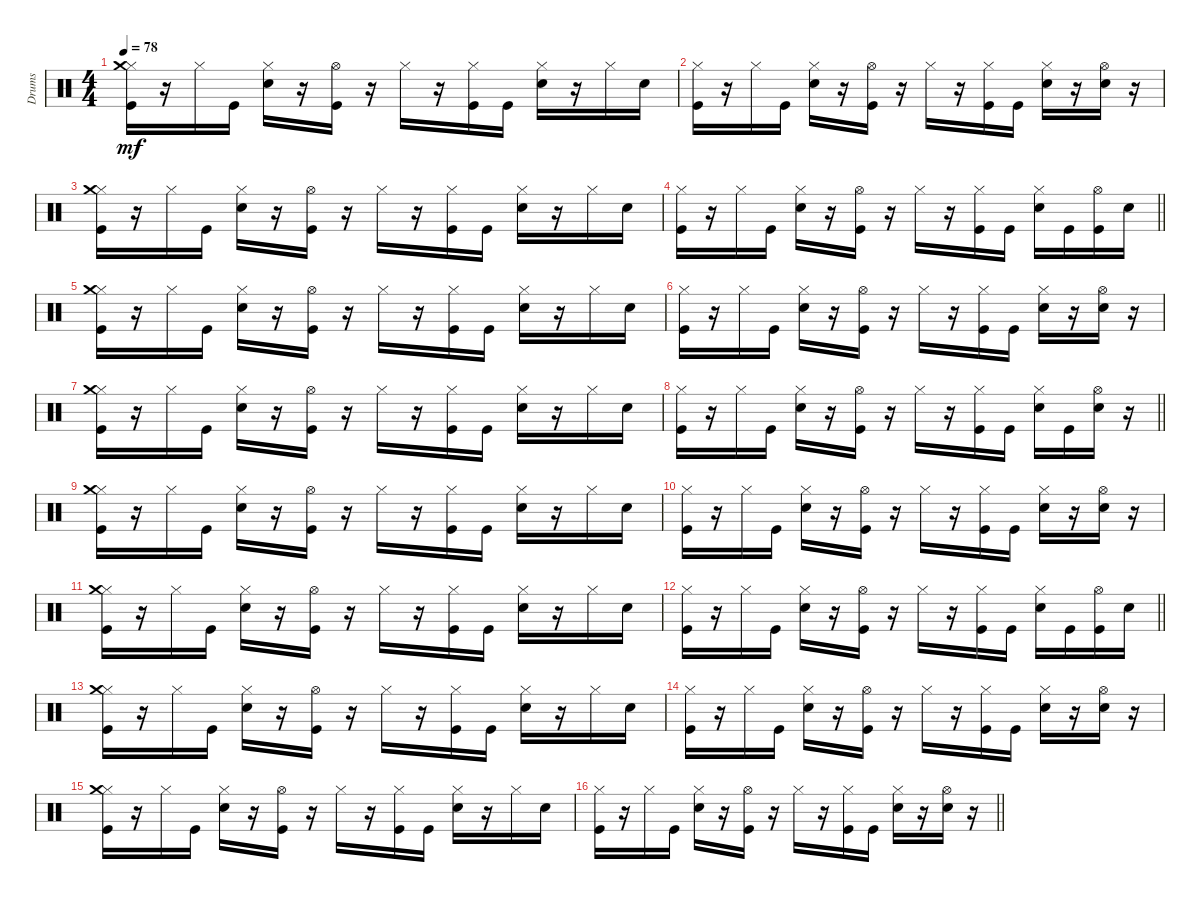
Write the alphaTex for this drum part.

\track ("Drums" "Drums") {instrument percussion}
\staff {score}
\articulation defaults
\ts (4 4)
\tempo 78
\clef neutral
\ks c
("Hi-Hat (closed)" "Crash medium (hit)" "Kick (hit)").16{dy mf} r.16 "Hi-Hat (closed)".16 "Kick (hit)".16 ("Hi-Hat (closed)" "Snare (hit) 2").16 r.16 ("Hi-Hat (open)" "Kick (hit)").16 r.16 "Hi-Hat (closed)".16 r.16 ("Hi-Hat (closed)" "Kick (hit)").16 "Kick (hit)".16 ("Hi-Hat (closed)" "Snare (hit) 2").16 r.16 "Hi-Hat (closed)".16 "Snare (hit) 2".16 |
("Hi-Hat (closed)" "Kick (hit)").16 r.16 "Hi-Hat (closed)".16 "Kick (hit)".16 ("Hi-Hat (closed)" "Snare (hit) 2").16 r.16 ("Hi-Hat (open)" "Kick (hit)").16 r.16 "Hi-Hat (closed)".16 r.16 ("Hi-Hat (closed)" "Kick (hit)").16 "Kick (hit)".16 ("Hi-Hat (closed)" "Snare (hit) 2").16 r.16 ("Hi-Hat (open)" "Snare (hit) 2").16 r.16 |
("Hi-Hat (closed)" "Crash medium (hit)" "Kick (hit)").16 r.16 "Hi-Hat (closed)".16 "Kick (hit)".16 ("Hi-Hat (closed)" "Snare (hit) 2").16 r.16 ("Hi-Hat (open)" "Kick (hit)").16 r.16 "Hi-Hat (closed)".16 r.16 ("Hi-Hat (closed)" "Kick (hit)").16 "Kick (hit)".16 ("Hi-Hat (closed)" "Snare (hit) 2").16 r.16 "Hi-Hat (closed)".16 "Snare (hit) 2".16 |
\barLineRight lightlight
("Hi-Hat (closed)" "Kick (hit)").16 r.16 "Hi-Hat (closed)".16 "Kick (hit)".16 ("Hi-Hat (closed)" "Snare (hit) 2").16 r.16 ("Hi-Hat (open)" "Kick (hit)").16 r.16 "Hi-Hat (closed)".16 r.16 ("Hi-Hat (closed)" "Kick (hit)").16 "Kick (hit)".16 ("Hi-Hat (closed)" "Snare (hit) 2").16 "Kick (hit)".16 ("Hi-Hat (open)" "Kick (hit)").16 "Snare (hit) 2".16 |
("Hi-Hat (closed)" "Crash medium (hit)" "Kick (hit)").16 r.16 "Hi-Hat (closed)".16 "Kick (hit)".16 ("Hi-Hat (closed)" "Snare (hit) 2").16 r.16 ("Hi-Hat (open)" "Kick (hit)").16 r.16 "Hi-Hat (closed)".16 r.16 ("Hi-Hat (closed)" "Kick (hit)").16 "Kick (hit)".16 ("Hi-Hat (closed)" "Snare (hit) 2").16 r.16 "Hi-Hat (closed)".16 "Snare (hit) 2".16 |
("Hi-Hat (closed)" "Kick (hit)").16 r.16 "Hi-Hat (closed)".16 "Kick (hit)".16 ("Hi-Hat (closed)" "Snare (hit) 2").16 r.16 ("Hi-Hat (open)" "Kick (hit)").16 r.16 "Hi-Hat (closed)".16 r.16 ("Hi-Hat (closed)" "Kick (hit)").16 "Kick (hit)".16 ("Hi-Hat (closed)" "Snare (hit) 2").16 r.16 ("Hi-Hat (open)" "Snare (hit) 2").16 r.16 |
("Hi-Hat (closed)" "Crash medium (hit)" "Kick (hit)").16 r.16 "Hi-Hat (closed)".16 "Kick (hit)".16 ("Hi-Hat (closed)" "Snare (hit) 2").16 r.16 ("Hi-Hat (open)" "Kick (hit)").16 r.16 "Hi-Hat (closed)".16 r.16 ("Hi-Hat (closed)" "Kick (hit)").16 "Kick (hit)".16 ("Hi-Hat (closed)" "Snare (hit) 2").16 r.16 "Hi-Hat (closed)".16 "Snare (hit) 2".16 |
\barLineRight lightlight
("Hi-Hat (closed)" "Kick (hit)").16 r.16 "Hi-Hat (closed)".16 "Kick (hit)".16 ("Hi-Hat (closed)" "Snare (hit) 2").16 r.16 ("Hi-Hat (open)" "Kick (hit)").16 r.16 "Hi-Hat (closed)".16 r.16 ("Hi-Hat (closed)" "Kick (hit)").16 "Kick (hit)".16 ("Hi-Hat (closed)" "Snare (hit) 2").16 "Kick (hit)".16 ("Hi-Hat (open)" "Snare (hit) 2").16 r.16 |
("Hi-Hat (closed)" "Crash medium (hit)" "Kick (hit)").16 r.16 "Hi-Hat (closed)".16 "Kick (hit)".16 ("Hi-Hat (closed)" "Snare (hit) 2").16 r.16 ("Hi-Hat (open)" "Kick (hit)").16 r.16 "Hi-Hat (closed)".16 r.16 ("Hi-Hat (closed)" "Kick (hit)").16 "Kick (hit)".16 ("Hi-Hat (closed)" "Snare (hit) 2").16 r.16 "Hi-Hat (closed)".16 "Snare (hit) 2".16 |
("Hi-Hat (closed)" "Kick (hit)").16 r.16 "Hi-Hat (closed)".16 "Kick (hit)".16 ("Hi-Hat (closed)" "Snare (hit) 2").16 r.16 ("Hi-Hat (open)" "Kick (hit)").16 r.16 "Hi-Hat (closed)".16 r.16 ("Hi-Hat (closed)" "Kick (hit)").16 "Kick (hit)".16 ("Hi-Hat (closed)" "Snare (hit) 2").16 r.16 ("Hi-Hat (open)" "Snare (hit) 2").16 r.16 |
("Hi-Hat (closed)" "Crash medium (hit)" "Kick (hit)").16 r.16 "Hi-Hat (closed)".16 "Kick (hit)".16 ("Hi-Hat (closed)" "Snare (hit) 2").16 r.16 ("Hi-Hat (open)" "Kick (hit)").16 r.16 "Hi-Hat (closed)".16 r.16 ("Hi-Hat (closed)" "Kick (hit)").16 "Kick (hit)".16 ("Hi-Hat (closed)" "Snare (hit) 2").16 r.16 "Hi-Hat (closed)".16 "Snare (hit) 2".16 |
\barLineRight lightlight
("Hi-Hat (closed)" "Kick (hit)").16 r.16 "Hi-Hat (closed)".16 "Kick (hit)".16 ("Hi-Hat (closed)" "Snare (hit) 2").16 r.16 ("Hi-Hat (open)" "Kick (hit)").16 r.16 "Hi-Hat (closed)".16 r.16 ("Hi-Hat (closed)" "Kick (hit)").16 "Kick (hit)".16 ("Hi-Hat (closed)" "Snare (hit) 2").16 "Kick (hit)".16 ("Hi-Hat (open)" "Kick (hit)").16 "Snare (hit) 2".16 |
("Hi-Hat (closed)" "Crash medium (hit)" "Kick (hit)").16 r.16 "Hi-Hat (closed)".16 "Kick (hit)".16 ("Hi-Hat (closed)" "Snare (hit) 2").16 r.16 ("Hi-Hat (open)" "Kick (hit)").16 r.16 "Hi-Hat (closed)".16 r.16 ("Hi-Hat (closed)" "Kick (hit)").16 "Kick (hit)".16 ("Hi-Hat (closed)" "Snare (hit) 2").16 r.16 "Hi-Hat (closed)".16 "Snare (hit) 2".16 |
("Hi-Hat (closed)" "Kick (hit)").16 r.16 "Hi-Hat (closed)".16 "Kick (hit)".16 ("Hi-Hat (closed)" "Snare (hit) 2").16 r.16 ("Hi-Hat (open)" "Kick (hit)").16 r.16 "Hi-Hat (closed)".16 r.16 ("Hi-Hat (closed)" "Kick (hit)").16 "Kick (hit)".16 ("Hi-Hat (closed)" "Snare (hit) 2").16 r.16 ("Hi-Hat (open)" "Snare (hit) 2").16 r.16 |
("Hi-Hat (closed)" "Crash medium (hit)" "Kick (hit)").16 r.16 "Hi-Hat (closed)".16 "Kick (hit)".16 ("Hi-Hat (closed)" "Snare (hit) 2").16 r.16 ("Hi-Hat (open)" "Kick (hit)").16 r.16 "Hi-Hat (closed)".16 r.16 ("Hi-Hat (closed)" "Kick (hit)").16 "Kick (hit)".16 ("Hi-Hat (closed)" "Snare (hit) 2").16 r.16 "Hi-Hat (closed)".16 "Snare (hit) 2".16 |
\barLineRight lightlight
("Hi-Hat (closed)" "Kick (hit)").16 r.16 "Hi-Hat (closed)".16 "Kick (hit)".16 ("Hi-Hat (closed)" "Snare (hit) 2").16 r.16 ("Hi-Hat (open)" "Kick (hit)").16 r.16 "Hi-Hat (closed)".16 r.16 ("Hi-Hat (closed)" "Kick (hit)").16 "Kick (hit)".16 ("Hi-Hat (closed)" "Snare (hit) 2").16 r.16 ("Hi-Hat (open)" "Snare (hit) 2").16 r.16
